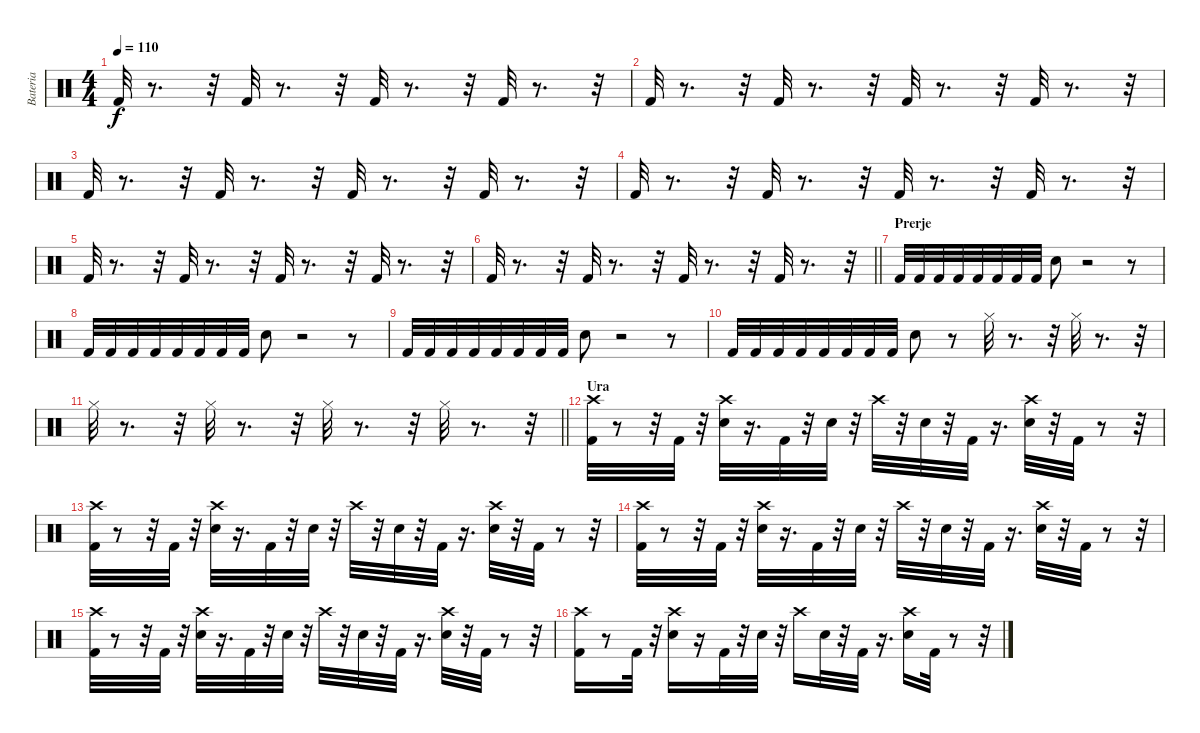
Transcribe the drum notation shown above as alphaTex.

\track ("Bateria" "Bateria") {instrument percussion}
\staff {score}
\articulation defaults
\ts (4 4)
\tempo 110
\clef neutral
\ks c "Kick (hit) 2".32{dy f}
r.8{d} r.32 "Kick (hit) 2".32 r.8{d} r.32 "Kick (hit) 2".32 r.8{d} r.32 "Kick (hit) 2".32 r.8{d} r.32 |
"Kick (hit) 2".32 r.8{d} r.32 "Kick (hit) 2".32 r.8{d} r.32 "Kick (hit) 2".32 r.8{d} r.32 "Kick (hit) 2".32 r.8{d} r.32 |
"Kick (hit) 2".32 r.8{d} r.32 "Kick (hit) 2".32 r.8{d} r.32 "Kick (hit) 2".32 r.8{d} r.32 "Kick (hit) 2".32 r.8{d} r.32 |
"Kick (hit) 2".32 r.8{d} r.32 "Kick (hit) 2".32 r.8{d} r.32 "Kick (hit) 2".32{volume 0} r.8{d} r.32 "Kick (hit) 2".32 r.8{d} r.32 |
"Kick (hit) 2".32 r.8{d} r.32 "Kick (hit) 2".32{volume 13} r.8{d} r.32 "Kick (hit) 2".32 r.8{d} r.32 "Kick (hit) 2".32 r.8{d} r.32 |
\barLineRight lightlight "Kick (hit) 2".32
r.8{d} r.32 "Kick (hit) 2".32 r.8{d} r.32 "Kick (hit) 2".32 r.8{d} r.32 "Kick (hit) 2".32 r.8{d} r.32 |
\section ("" "Prerje")
"Kick (hit) 2".32 "Kick (hit) 2".32 "Kick (hit) 2".32 "Kick (hit) 2".32 "Kick (hit) 2".32 "Kick (hit) 2".32 "Kick (hit) 2".32 "Kick (hit) 2".32 "Snare (hit) 2".8 r.2 r.8 |
"Kick (hit) 2".32 "Kick (hit) 2".32 "Kick (hit) 2".32 "Kick (hit) 2".32 "Kick (hit) 2".32 "Kick (hit) 2".32 "Kick (hit) 2".32 "Kick (hit) 2".32 "Snare (hit) 2".8 r.2 r.8 |
"Kick (hit) 2".32 "Kick (hit) 2".32 "Kick (hit) 2".32 "Kick (hit) 2".32 "Kick (hit) 2".32 "Kick (hit) 2".32 "Kick (hit) 2".32 "Kick (hit) 2".32 "Snare (hit) 2".8 r.2 r.8 |
"Kick (hit) 2".32 "Kick (hit) 2".32 "Kick (hit) 2".32 "Kick (hit) 2".32 "Kick (hit) 2".32 "Kick (hit) 2".32 "Kick (hit) 2".32 "Kick (hit) 2".32 "Snare (hit) 2".8 r.8 "Hi-Hat (closed)".32 r.8{d} r.32 "Hi-Hat (closed)".32 r.8{d} r.32 |
\barLineRight lightlight "Hi-Hat (closed)".32
r.8{d} r.32 "Hi-Hat (closed)".32 r.8{d} r.32 "Hi-Hat (closed)".32 r.8{d} r.32 "Hi-Hat (closed)".32 r.8{d} r.32 |
\section ("" "Ura")
("Kick (hit) 2" "Crash high (hit)").32 r.8 r.32 "Kick (hit) 2".32 r.32 ("Snare (hit) 2" "Crash high (hit)").32 r.16{d} "Kick (hit) 2".32 r.32 "Snare (hit) 2".32 r.32 "Crash high (hit)".32 r.32 "Snare (hit) 2".32 r.32 "Kick (hit) 2".32 r.16{d} ("Snare (hit) 2" "Crash high (hit)").32 r.32 "Kick (hit) 2".32 r.8 r.32 |
("Kick (hit) 2" "Crash high (hit)").32 r.8 r.32 "Kick (hit) 2".32 r.32 ("Snare (hit) 2" "Crash high (hit)").32 r.16{d} "Kick (hit) 2".32 r.32 "Snare (hit) 2".32 r.32 "Crash high (hit)".32 r.32 "Snare (hit) 2".32 r.32 "Kick (hit) 2".32 r.16{d} ("Snare (hit) 2" "Crash high (hit)").32 r.32 "Kick (hit) 2".32 r.8 r.32 |
("Kick (hit) 2" "Crash high (hit)").32 r.8 r.32 "Kick (hit) 2".32 r.32 ("Snare (hit) 2" "Crash high (hit)").32 r.16{d} "Kick (hit) 2".32 r.32 "Snare (hit) 2".32 r.32 "Crash high (hit)".32 r.32 "Snare (hit) 2".32 r.32 "Kick (hit) 2".32 r.16{d} ("Snare (hit) 2" "Crash high (hit)").32 r.32 "Kick (hit) 2".32 r.8 r.32 |
("Kick (hit) 2" "Crash high (hit)").32 r.8 r.32 "Kick (hit) 2".32 r.32 ("Snare (hit) 2" "Crash high (hit)").32 r.16{d} "Kick (hit) 2".32 r.32 "Snare (hit) 2".32 r.32 "Crash high (hit)".32 r.32 "Snare (hit) 2".32 r.32 "Kick (hit) 2".32 r.16{d} ("Snare (hit) 2" "Crash high (hit)").32 r.32 "Kick (hit) 2".32 r.8 r.32 |
("Crash high (hit)" "Kick (hit) 2").16 r.8 "Kick (hit) 2".32 r.32 ("Crash high (hit)" "Snare (hit) 2").16 r.16 "Kick (hit) 2".32 r.32 "Snare (hit) 2".32 r.32 "Crash high (hit)".16 "Snare (hit) 2".32 r.32 "Kick (hit) 2".32 r.16{d} ("Crash high (hit)" "Snare (hit) 2").16 "Kick (hit) 2".32 r.8 r.32
